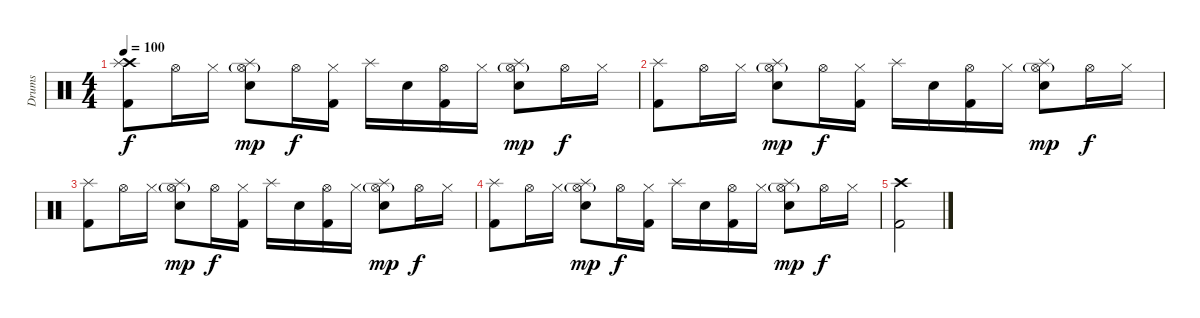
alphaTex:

\track ("Drums" "Drums") {instrument percussion}
\staff {score}
\articulation defaults
\ts (4 4)
\tempo 100
\clef neutral
\ks c
("Kick (hit) 2" "Crash high (hit)" "Splash (hit)").8{dy f} "Hi-Hat (open)".16 "Hi-Hat (closed)".16 ("Snare (hit) 2" "Hi-Hat (open)"{g} "Splash (hit)").8{dy mp} "Hi-Hat (open)".16{dy f} ("Kick (hit) 2" "Hi-Hat (closed)").16 "Splash (hit)".16 "Snare (hit) 2".16 ("Kick (hit) 2" "Hi-Hat (open)").16 "Hi-Hat (closed)".16 ("Snare (hit) 2" "Hi-Hat (open)"{g} "Splash (hit)").8{dy mp} "Hi-Hat (open)".16{dy f} "Hi-Hat (closed)".16 |
("Kick (hit) 2" "Splash (hit)").8 "Hi-Hat (open)".16 "Hi-Hat (closed)".16 ("Snare (hit) 2" "Hi-Hat (open)"{g} "Splash (hit)").8{dy mp} "Hi-Hat (open)".16{dy f} ("Kick (hit) 2" "Hi-Hat (closed)").16 "Splash (hit)".16 "Snare (hit) 2".16 ("Kick (hit) 2" "Hi-Hat (open)").16 "Hi-Hat (closed)".16 ("Snare (hit) 2" "Hi-Hat (open)"{g} "Splash (hit)").8{dy mp} "Hi-Hat (open)".16{dy f} "Hi-Hat (closed)".16 |
("Kick (hit) 2" "Splash (hit)").8 "Hi-Hat (open)".16 "Hi-Hat (closed)".16 ("Snare (hit) 2" "Hi-Hat (open)"{g} "Splash (hit)").8{dy mp} "Hi-Hat (open)".16{dy f} ("Kick (hit) 2" "Hi-Hat (closed)").16 "Splash (hit)".16 "Snare (hit) 2".16 ("Kick (hit) 2" "Hi-Hat (open)").16 "Hi-Hat (closed)".16 ("Snare (hit) 2" "Hi-Hat (open)"{g} "Splash (hit)").8{dy mp} "Hi-Hat (open)".16{dy f} "Hi-Hat (closed)".16 |
("Kick (hit) 2" "Splash (hit)").8 "Hi-Hat (open)".16 "Hi-Hat (closed)".16 ("Snare (hit) 2" "Hi-Hat (open)"{g} "Splash (hit)").8{dy mp} "Hi-Hat (open)".16{dy f} ("Kick (hit) 2" "Hi-Hat (closed)").16 "Splash (hit)".16 "Snare (hit) 2".16 ("Kick (hit) 2" "Hi-Hat (open)").16 "Hi-Hat (closed)".16 ("Snare (hit) 2" "Hi-Hat (open)"{g} "Splash (hit)").8{dy mp} "Hi-Hat (open)".16{dy f} "Hi-Hat (closed)".16 |
("Crash high (hit)" "Kick (hit) 2").2
